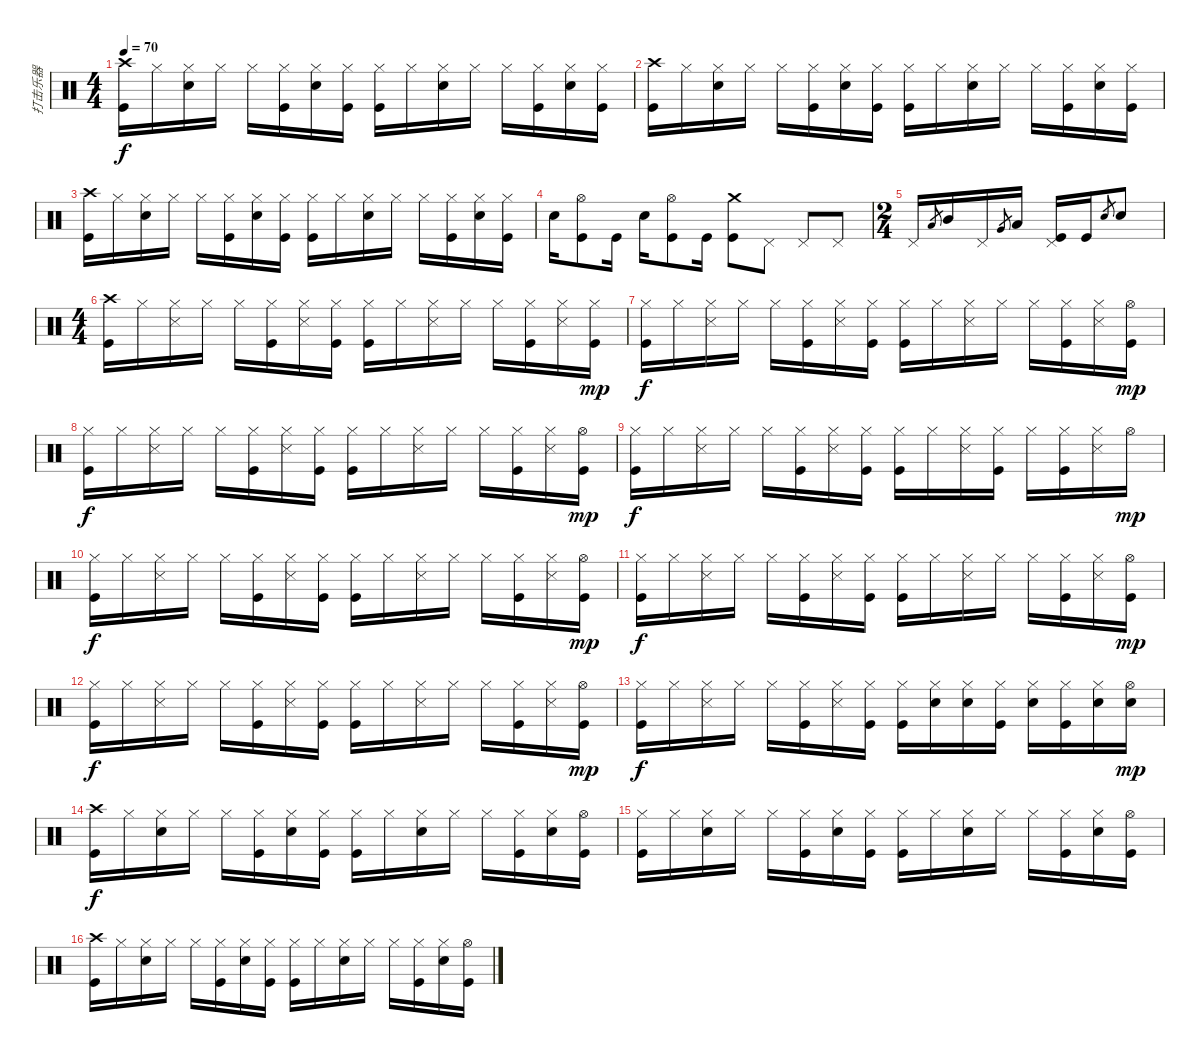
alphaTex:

\track ("打击乐器" "打击乐器") {instrument percussion}
\staff {score}
\articulation defaults
\ts (4 4)
\tempo 70
\clef neutral
\ks c
("Crash high (hit)" "Kick (hit)").16{dy f} "Hi-Hat (closed)".16 ("Hi-Hat (closed)" "Electric Snare (hit)").16 "Hi-Hat (closed)".16 "Hi-Hat (closed)".16 ("Hi-Hat (closed)" "Kick (hit)").16 ("Hi-Hat (closed)" "Electric Snare (hit)").16 ("Hi-Hat (closed)" "Kick (hit)").16 ("Hi-Hat (closed)" "Kick (hit)").16 "Hi-Hat (closed)".16 ("Hi-Hat (closed)" "Electric Snare (hit)").16 "Hi-Hat (closed)".16 "Hi-Hat (closed)".16 ("Hi-Hat (closed)" "Kick (hit)").16 ("Hi-Hat (closed)" "Electric Snare (hit)").16 ("Hi-Hat (closed)" "Kick (hit)").16 |
("Crash high (hit)" "Kick (hit)").16 "Hi-Hat (closed)".16 ("Hi-Hat (closed)" "Electric Snare (hit)").16 "Hi-Hat (closed)".16 "Hi-Hat (closed)".16 ("Hi-Hat (closed)" "Kick (hit)").16 ("Hi-Hat (closed)" "Electric Snare (hit)").16 ("Hi-Hat (closed)" "Kick (hit)").16 ("Hi-Hat (closed)" "Kick (hit)").16 "Hi-Hat (closed)".16 ("Hi-Hat (closed)" "Electric Snare (hit)").16 "Hi-Hat (closed)".16 "Hi-Hat (closed)".16 ("Hi-Hat (closed)" "Kick (hit)").16 ("Hi-Hat (closed)" "Electric Snare (hit)").16 ("Hi-Hat (closed)" "Kick (hit)").16 |
("Crash high (hit)" "Kick (hit)").16 "Hi-Hat (closed)".16 ("Hi-Hat (closed)" "Electric Snare (hit)").16 "Hi-Hat (closed)".16 "Hi-Hat (closed)".16 ("Hi-Hat (closed)" "Kick (hit)").16 ("Hi-Hat (closed)" "Electric Snare (hit)").16 ("Hi-Hat (closed)" "Kick (hit)").16 ("Hi-Hat (closed)" "Kick (hit)").16 "Hi-Hat (closed)".16 ("Hi-Hat (closed)" "Electric Snare (hit)").16 "Hi-Hat (closed)".16 "Hi-Hat (closed)".16 ("Hi-Hat (closed)" "Kick (hit)").16 ("Hi-Hat (closed)" "Electric Snare (hit)").16 ("Hi-Hat (closed)" "Kick (hit)").16 |
"Electric Snare (hit)".16 ("Hi-Hat (open)" "Kick (hit)").8 "Kick (hit)".16 "Electric Snare (hit)".16 ("Hi-Hat (open)" "Kick (hit)").8 "Kick (hit)".16 ("Crash medium (hit)" "Kick (hit)").8 "Pedal Hi-Hat (hit)".8 "Pedal Hi-Hat (hit)".8 "Pedal Hi-Hat (hit)".8 |
\ts (2 4)
"Pedal Hi-Hat (hit)".16 "Low Tom (hit)".8{gr} "Mid Tom (hit)".16 "Pedal Hi-Hat (hit)".16 "Very Low Tom (hit)".8{gr} "Low Tom (hit)".16 ("Pedal Hi-Hat (hit)" "Kick (hit)").16 "Kick (hit)".16 "Electric Snare (hit)".8{gr} "Electric Snare (hit)".8 |
\ts (4 4)
("Crash high (hit)" "Kick (hit)").16 "Hi-Hat (closed)".16 ("Hi-Hat (closed)" "Snare (side stick) 3").16 "Hi-Hat (closed)".16 "Hi-Hat (closed)".16 ("Hi-Hat (closed)" "Kick (hit)").16 ("Hi-Hat (closed)" "Snare (side stick) 3").16 ("Hi-Hat (closed)" "Kick (hit)").16 ("Hi-Hat (closed)" "Kick (hit)").16 "Hi-Hat (closed)".16 ("Hi-Hat (closed)" "Snare (side stick) 3").16 "Hi-Hat (closed)".16 "Hi-Hat (closed)".16 ("Hi-Hat (closed)" "Kick (hit)").16 ("Hi-Hat (closed)" "Snare (side stick) 3").16 ("Hi-Hat (closed)" "Kick (hit)").16{dy mp} |
("Hi-Hat (closed)" "Kick (hit)").16{dy f} "Hi-Hat (closed)".16 ("Hi-Hat (closed)" "Snare (side stick) 3").16 "Hi-Hat (closed)".16 "Hi-Hat (closed)".16 ("Hi-Hat (closed)" "Kick (hit)").16 ("Hi-Hat (closed)" "Snare (side stick) 3").16 ("Hi-Hat (closed)" "Kick (hit)").16 ("Hi-Hat (closed)" "Kick (hit)").16 "Hi-Hat (closed)".16 ("Hi-Hat (closed)" "Snare (side stick) 3").16 "Hi-Hat (closed)".16 "Hi-Hat (closed)".16 ("Hi-Hat (closed)" "Kick (hit)").16 ("Hi-Hat (closed)" "Snare (side stick) 3").16 ("Hi-Hat (open)" "Kick (hit)").16{dy mp} |
("Hi-Hat (closed)" "Kick (hit)").16{dy f} "Hi-Hat (closed)".16 ("Hi-Hat (closed)" "Snare (side stick) 3").16 "Hi-Hat (closed)".16 "Hi-Hat (closed)".16 ("Hi-Hat (closed)" "Kick (hit)").16 ("Hi-Hat (closed)" "Snare (side stick) 3").16 ("Hi-Hat (closed)" "Kick (hit)").16 ("Hi-Hat (closed)" "Kick (hit)").16 "Hi-Hat (closed)".16 ("Hi-Hat (closed)" "Snare (side stick) 3").16 "Hi-Hat (closed)".16 "Hi-Hat (closed)".16 ("Hi-Hat (closed)" "Kick (hit)").16 ("Hi-Hat (closed)" "Snare (side stick) 3").16 ("Hi-Hat (open)" "Kick (hit)").16{dy mp} |
("Hi-Hat (closed)" "Kick (hit)").16{dy f} "Hi-Hat (closed)".16 ("Hi-Hat (closed)" "Snare (side stick) 3").16 "Hi-Hat (closed)".16 "Hi-Hat (closed)".16 ("Hi-Hat (closed)" "Kick (hit)").16 ("Hi-Hat (closed)" "Snare (side stick) 3").16 ("Hi-Hat (closed)" "Kick (hit)").16 ("Hi-Hat (closed)" "Kick (hit)").16 "Hi-Hat (closed)".16 ("Hi-Hat (closed)" "Snare (side stick) 3").16 ("Hi-Hat (closed)" "Kick (hit)").16 "Hi-Hat (closed)".16 ("Hi-Hat (closed)" "Kick (hit)").16 ("Hi-Hat (closed)" "Snare (side stick) 3").16 "Hi-Hat (open)".16{dy mp} |
("Hi-Hat (closed)" "Kick (hit)").16{dy f} "Hi-Hat (closed)".16 ("Hi-Hat (closed)" "Snare (side stick) 3").16 "Hi-Hat (closed)".16 "Hi-Hat (closed)".16 ("Hi-Hat (closed)" "Kick (hit)").16 ("Hi-Hat (closed)" "Snare (side stick) 3").16 ("Hi-Hat (closed)" "Kick (hit)").16 ("Hi-Hat (closed)" "Kick (hit)").16 "Hi-Hat (closed)".16 ("Hi-Hat (closed)" "Snare (side stick) 3").16 "Hi-Hat (closed)".16 "Hi-Hat (closed)".16 ("Hi-Hat (closed)" "Kick (hit)").16 ("Hi-Hat (closed)" "Snare (side stick) 3").16 ("Hi-Hat (open)" "Kick (hit)").16{dy mp} |
("Hi-Hat (closed)" "Kick (hit)").16{dy f} "Hi-Hat (closed)".16 ("Hi-Hat (closed)" "Snare (side stick) 3").16 "Hi-Hat (closed)".16 "Hi-Hat (closed)".16 ("Hi-Hat (closed)" "Kick (hit)").16 ("Hi-Hat (closed)" "Snare (side stick) 3").16 ("Hi-Hat (closed)" "Kick (hit)").16 ("Hi-Hat (closed)" "Kick (hit)").16 "Hi-Hat (closed)".16 ("Hi-Hat (closed)" "Snare (side stick) 3").16 "Hi-Hat (closed)".16 "Hi-Hat (closed)".16 ("Hi-Hat (closed)" "Kick (hit)").16 ("Hi-Hat (closed)" "Snare (side stick) 3").16 ("Hi-Hat (open)" "Kick (hit)").16{dy mp} |
("Hi-Hat (closed)" "Kick (hit)").16{dy f} "Hi-Hat (closed)".16 ("Hi-Hat (closed)" "Snare (side stick) 3").16 "Hi-Hat (closed)".16 "Hi-Hat (closed)".16 ("Hi-Hat (closed)" "Kick (hit)").16 ("Hi-Hat (closed)" "Snare (side stick) 3").16 ("Hi-Hat (closed)" "Kick (hit)").16 ("Hi-Hat (closed)" "Kick (hit)").16 "Hi-Hat (closed)".16 ("Hi-Hat (closed)" "Snare (side stick) 3").16 "Hi-Hat (closed)".16 "Hi-Hat (closed)".16 ("Hi-Hat (closed)" "Kick (hit)").16 ("Hi-Hat (closed)" "Snare (side stick) 3").16 ("Hi-Hat (open)" "Kick (hit)").16{dy mp} |
("Hi-Hat (closed)" "Kick (hit)").16{dy f} "Hi-Hat (closed)".16 ("Hi-Hat (closed)" "Snare (side stick) 3").16 "Hi-Hat (closed)".16 "Hi-Hat (closed)".16 ("Hi-Hat (closed)" "Kick (hit)").16 ("Hi-Hat (closed)" "Snare (side stick) 3").16 ("Hi-Hat (closed)" "Kick (hit)").16 ("Hi-Hat (closed)" "Kick (hit)").16 ("Hi-Hat (closed)" "Electric Snare (hit)").16 ("Hi-Hat (closed)" "Electric Snare (hit)").16 ("Hi-Hat (closed)" "Kick (hit)").16 ("Hi-Hat (closed)" "Electric Snare (hit)").16 ("Hi-Hat (closed)" "Kick (hit)").16 ("Hi-Hat (closed)" "Electric Snare (hit)").16 ("Hi-Hat (open)" "Electric Snare (hit)").16{dy mp} |
("Crash high (hit)" "Kick (hit)").16{dy f} "Hi-Hat (closed)".16 ("Hi-Hat (closed)" "Electric Snare (hit)").16 "Hi-Hat (closed)".16 "Hi-Hat (closed)".16 ("Hi-Hat (closed)" "Kick (hit)").16 ("Hi-Hat (closed)" "Electric Snare (hit)").16 ("Hi-Hat (closed)" "Kick (hit)").16 ("Hi-Hat (closed)" "Kick (hit)").16 "Hi-Hat (closed)".16 ("Hi-Hat (closed)" "Electric Snare (hit)").16 "Hi-Hat (closed)".16 "Hi-Hat (closed)".16 ("Hi-Hat (closed)" "Kick (hit)").16 ("Hi-Hat (closed)" "Electric Snare (hit)").16 ("Hi-Hat (open)" "Kick (hit)").16 |
("Hi-Hat (closed)" "Kick (hit)").16 "Hi-Hat (closed)".16 ("Hi-Hat (closed)" "Electric Snare (hit)").16 "Hi-Hat (closed)".16 "Hi-Hat (closed)".16 ("Hi-Hat (closed)" "Kick (hit)").16 ("Hi-Hat (closed)" "Electric Snare (hit)").16 ("Hi-Hat (closed)" "Kick (hit)").16 ("Hi-Hat (closed)" "Kick (hit)").16 "Hi-Hat (closed)".16 ("Hi-Hat (closed)" "Electric Snare (hit)").16 "Hi-Hat (closed)".16 "Hi-Hat (closed)".16 ("Hi-Hat (closed)" "Kick (hit)").16 ("Hi-Hat (closed)" "Electric Snare (hit)").16 ("Hi-Hat (open)" "Kick (hit)").16 |
("Crash high (hit)" "Kick (hit)").16 "Hi-Hat (closed)".16 ("Hi-Hat (closed)" "Electric Snare (hit)").16 "Hi-Hat (closed)".16 "Hi-Hat (closed)".16 ("Hi-Hat (closed)" "Kick (hit)").16 ("Hi-Hat (closed)" "Electric Snare (hit)").16 ("Hi-Hat (closed)" "Kick (hit)").16 ("Hi-Hat (closed)" "Kick (hit)").16 "Hi-Hat (closed)".16 ("Hi-Hat (closed)" "Electric Snare (hit)").16 "Hi-Hat (closed)".16 "Hi-Hat (closed)".16 ("Hi-Hat (closed)" "Kick (hit)").16 ("Hi-Hat (closed)" "Electric Snare (hit)").16 ("Hi-Hat (open)" "Kick (hit)").16
